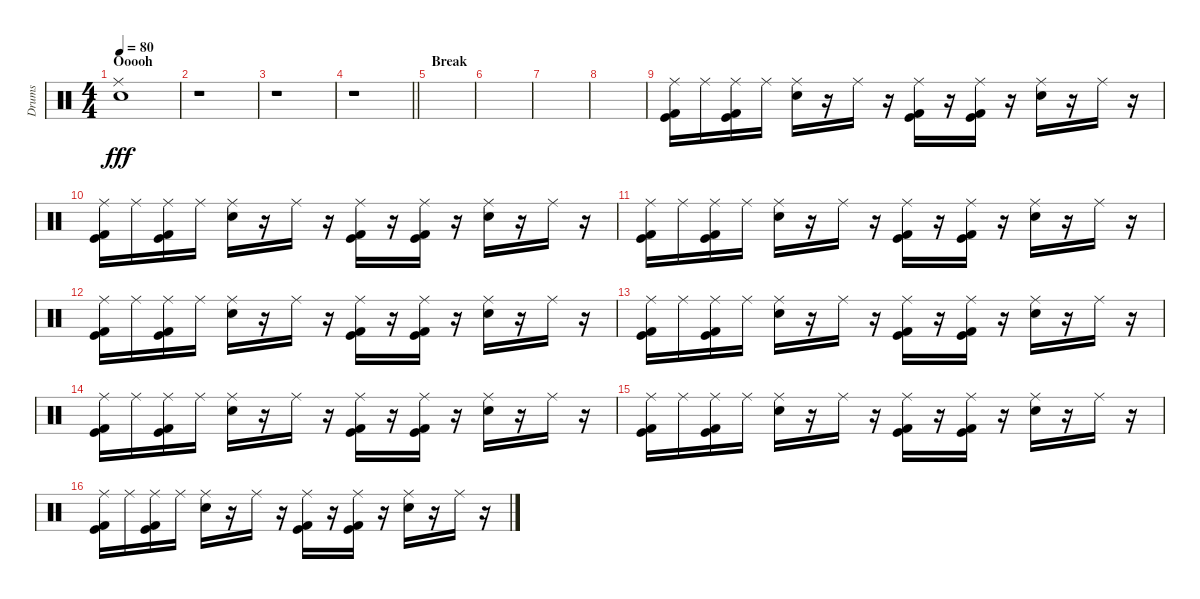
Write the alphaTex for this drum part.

\track ("Drums" "Drums") {instrument percussion}
\staff {score}
\articulation defaults
\ts (4 4)
\section ("" "Ooooh")
\tempo 80
\clef neutral
\ks c
("Ride (middle)" "Snare (hit) 2").1{dy fff} |
r.1 |
r.1 |
\barLineRight lightlight
r.1 |
\section ("" "Break")
|
|
|
|
("Ride (middle)" "Kick (hit)" "Kick (hit) 2").16 "Ride (middle)".16 ("Ride (middle)" "Kick (hit)" "Kick (hit) 2").16 "Ride (middle)".16 ("Ride (middle)" "Snare (hit) 2").16 r.16 "Ride (middle)".16 r.16 ("Ride (middle)" "Kick (hit)" "Kick (hit) 2").16 r.16 ("Ride (middle)" "Kick (hit)" "Kick (hit) 2").16 r.16 ("Ride (middle)" "Snare (hit) 2").16 r.16 "Ride (middle)".16 r.16 |
("Ride (middle)" "Kick (hit)" "Kick (hit) 2").16 "Ride (middle)".16 ("Ride (middle)" "Kick (hit)" "Kick (hit) 2").16 "Ride (middle)".16 ("Ride (middle)" "Snare (hit) 2").16 r.16 "Ride (middle)".16 r.16 ("Ride (middle)" "Kick (hit)" "Kick (hit) 2").16 r.16 ("Ride (middle)" "Kick (hit)" "Kick (hit) 2").16 r.16 ("Ride (middle)" "Snare (hit) 2").16 r.16 "Ride (middle)".16 r.16 |
("Ride (middle)" "Kick (hit)" "Kick (hit) 2").16 "Ride (middle)".16 ("Ride (middle)" "Kick (hit)" "Kick (hit) 2").16 "Ride (middle)".16 ("Ride (middle)" "Snare (hit) 2").16 r.16 "Ride (middle)".16 r.16 ("Ride (middle)" "Kick (hit)" "Kick (hit) 2").16 r.16 ("Ride (middle)" "Kick (hit)" "Kick (hit) 2").16 r.16 ("Ride (middle)" "Snare (hit) 2").16 r.16 "Ride (middle)".16 r.16 |
("Ride (middle)" "Kick (hit)" "Kick (hit) 2").16 "Ride (middle)".16 ("Ride (middle)" "Kick (hit)" "Kick (hit) 2").16 "Ride (middle)".16 ("Ride (middle)" "Snare (hit) 2").16 r.16 "Ride (middle)".16 r.16 ("Ride (middle)" "Kick (hit)" "Kick (hit) 2").16 r.16 ("Ride (middle)" "Kick (hit)" "Kick (hit) 2").16 r.16 ("Ride (middle)" "Snare (hit) 2").16 r.16 "Ride (middle)".16 r.16 |
("Ride (middle)" "Kick (hit)" "Kick (hit) 2").16 "Ride (middle)".16 ("Ride (middle)" "Kick (hit)" "Kick (hit) 2").16 "Ride (middle)".16 ("Ride (middle)" "Snare (hit) 2").16 r.16 "Ride (middle)".16 r.16 ("Ride (middle)" "Kick (hit)" "Kick (hit) 2").16 r.16 ("Ride (middle)" "Kick (hit)" "Kick (hit) 2").16 r.16 ("Ride (middle)" "Snare (hit) 2").16 r.16 "Ride (middle)".16 r.16 |
("Ride (middle)" "Kick (hit)" "Kick (hit) 2").16 "Ride (middle)".16 ("Ride (middle)" "Kick (hit)" "Kick (hit) 2").16 "Ride (middle)".16 ("Ride (middle)" "Snare (hit) 2").16 r.16 "Ride (middle)".16 r.16 ("Ride (middle)" "Kick (hit)" "Kick (hit) 2").16 r.16 ("Ride (middle)" "Kick (hit)" "Kick (hit) 2").16 r.16 ("Ride (middle)" "Snare (hit) 2").16 r.16 "Ride (middle)".16 r.16 |
("Ride (middle)" "Kick (hit)" "Kick (hit) 2").16 "Ride (middle)".16 ("Ride (middle)" "Kick (hit)" "Kick (hit) 2").16 "Ride (middle)".16 ("Ride (middle)" "Snare (hit) 2").16 r.16 "Ride (middle)".16 r.16 ("Ride (middle)" "Kick (hit)" "Kick (hit) 2").16 r.16 ("Ride (middle)" "Kick (hit)" "Kick (hit) 2").16 r.16 ("Ride (middle)" "Snare (hit) 2").16 r.16 "Ride (middle)".16 r.16 |
("Ride (middle)" "Kick (hit)" "Kick (hit) 2").16 "Ride (middle)".16 ("Ride (middle)" "Kick (hit)" "Kick (hit) 2").16 "Ride (middle)".16 ("Ride (middle)" "Snare (hit) 2").16 r.16 "Ride (middle)".16 r.16 ("Ride (middle)" "Kick (hit)" "Kick (hit) 2").16 r.16 ("Ride (middle)" "Kick (hit)" "Kick (hit) 2").16 r.16 ("Ride (middle)" "Snare (hit) 2").16 r.16 "Ride (middle)".16 r.16
